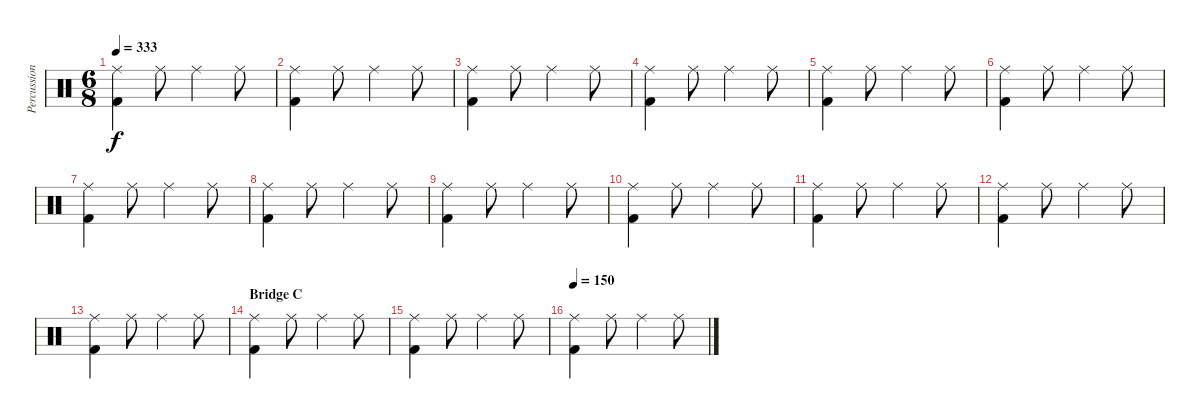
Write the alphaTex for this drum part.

\track ("Percussion" "Percussion") {instrument percussion}
\staff {score}
\articulation defaults
\ts (6 8)
\tempo 333
\clef neutral
\ks c
("Ride (middle)" "Kick (hit) 2").4{dy f} "Ride (middle)".8 "Ride (middle)".4 "Ride (middle)".8 |
("Ride (middle)" "Kick (hit) 2").4 "Ride (middle)".8 "Ride (middle)".4 "Ride (middle)".8 |
("Ride (middle)" "Kick (hit) 2").4 "Ride (middle)".8 "Ride (middle)".4 "Ride (middle)".8 |
("Ride (middle)" "Kick (hit) 2").4 "Ride (middle)".8 "Ride (middle)".4 "Ride (middle)".8 |
("Ride (middle)" "Kick (hit) 2").4 "Ride (middle)".8 "Ride (middle)".4 "Ride (middle)".8 |
("Ride (middle)" "Kick (hit) 2").4 "Ride (middle)".8 "Ride (middle)".4 "Ride (middle)".8 |
("Ride (middle)" "Kick (hit) 2").4 "Ride (middle)".8 "Ride (middle)".4 "Ride (middle)".8 |
("Ride (middle)" "Kick (hit) 2").4 "Ride (middle)".8 "Ride (middle)".4 "Ride (middle)".8 |
("Ride (middle)" "Kick (hit) 2").4 "Ride (middle)".8 "Ride (middle)".4 "Ride (middle)".8 |
("Ride (middle)" "Kick (hit) 2").4 "Ride (middle)".8 "Ride (middle)".4 "Ride (middle)".8 |
("Ride (middle)" "Kick (hit) 2").4 "Ride (middle)".8 "Ride (middle)".4 "Ride (middle)".8 |
("Ride (middle)" "Kick (hit) 2").4 "Ride (middle)".8 "Ride (middle)".4 "Ride (middle)".8 |
("Ride (middle)" "Kick (hit) 2").4 "Ride (middle)".8 "Ride (middle)".4 "Ride (middle)".8 |
\section ("" "Bridge C")
("Ride (middle)" "Kick (hit) 2").4 "Ride (middle)".8 "Ride (middle)".4 "Ride (middle)".8 |
("Ride (middle)" "Kick (hit) 2").4 "Ride (middle)".8 "Ride (middle)".4 "Ride (middle)".8 |
\tempo 150
("Ride (middle)" "Kick (hit) 2").4 "Ride (middle)".8 "Ride (middle)".4 "Ride (middle)".8
